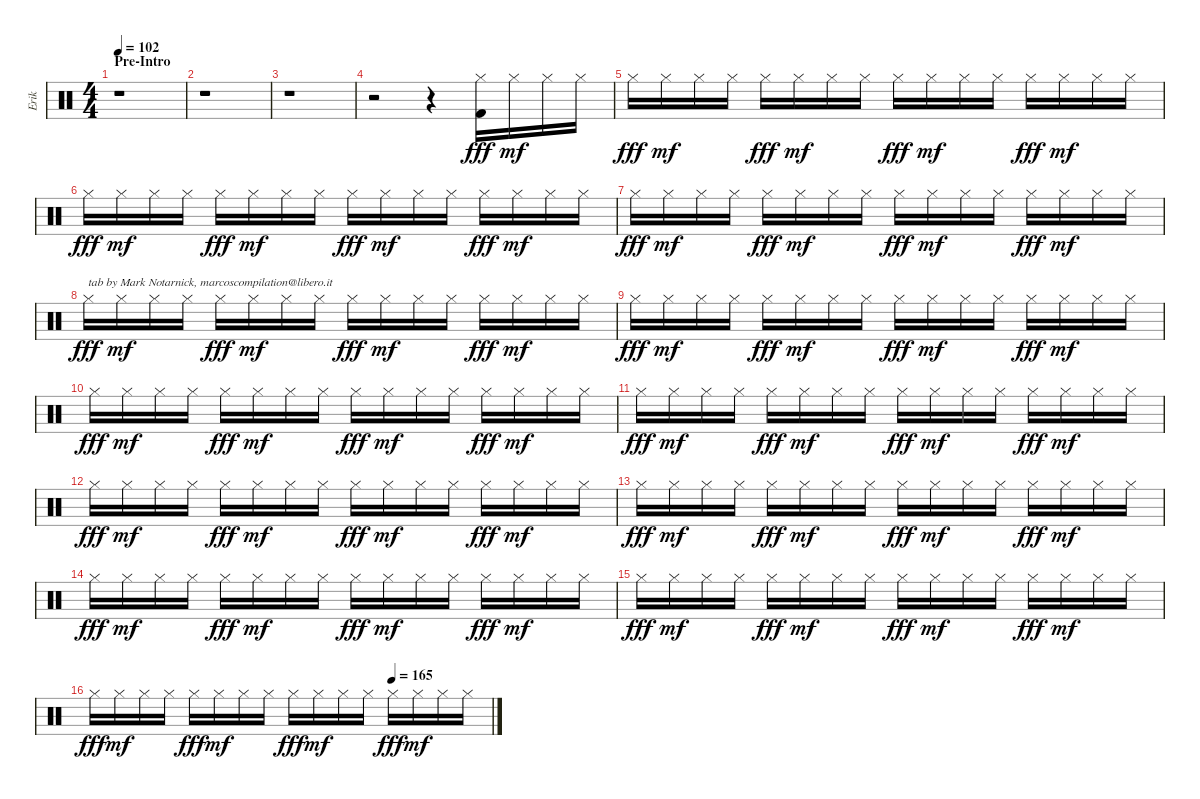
\track ("Erik" "Erik") {instrument percussion}
\staff {score}
\articulation defaults
\ts (4 4)
\section ("" "Pre-Intro")
\tempo 102
\tempo 182
\tempo 102
\clef neutral
\ks c
r.1{dy fff} |
r.1 |
r.1 |
r.2 r.4 ("Kick (hit) 2" "Hi-Hat (closed)").16 "Hi-Hat (closed)".16{dy mf} "Hi-Hat (closed)".16 "Hi-Hat (closed)".16 |
"Hi-Hat (closed)".16{dy fff} "Hi-Hat (closed)".16{dy mf} "Hi-Hat (closed)".16 "Hi-Hat (closed)".16 "Hi-Hat (closed)".16{dy fff} "Hi-Hat (closed)".16{dy mf} "Hi-Hat (closed)".16 "Hi-Hat (closed)".16 "Hi-Hat (closed)".16{dy fff} "Hi-Hat (closed)".16{dy mf} "Hi-Hat (closed)".16 "Hi-Hat (closed)".16 "Hi-Hat (closed)".16{dy fff} "Hi-Hat (closed)".16{dy mf} "Hi-Hat (closed)".16 "Hi-Hat (closed)".16 |
"Hi-Hat (closed)".16{dy fff} "Hi-Hat (closed)".16{dy mf} "Hi-Hat (closed)".16 "Hi-Hat (closed)".16 "Hi-Hat (closed)".16{dy fff} "Hi-Hat (closed)".16{dy mf} "Hi-Hat (closed)".16 "Hi-Hat (closed)".16 "Hi-Hat (closed)".16{dy fff} "Hi-Hat (closed)".16{dy mf} "Hi-Hat (closed)".16 "Hi-Hat (closed)".16 "Hi-Hat (closed)".16{dy fff} "Hi-Hat (closed)".16{dy mf} "Hi-Hat (closed)".16 "Hi-Hat (closed)".16 |
"Hi-Hat (closed)".16{dy fff} "Hi-Hat (closed)".16{dy mf} "Hi-Hat (closed)".16 "Hi-Hat (closed)".16 "Hi-Hat (closed)".16{dy fff} "Hi-Hat (closed)".16{dy mf} "Hi-Hat (closed)".16 "Hi-Hat (closed)".16 "Hi-Hat (closed)".16{dy fff} "Hi-Hat (closed)".16{dy mf} "Hi-Hat (closed)".16 "Hi-Hat (closed)".16 "Hi-Hat (closed)".16{dy fff} "Hi-Hat (closed)".16{dy mf} "Hi-Hat (closed)".16 "Hi-Hat (closed)".16 |
"Hi-Hat (closed)".16{txt "tab by Mark Notarnick, marcoscompilation@libero.it" dy fff} "Hi-Hat (closed)".16{dy mf} "Hi-Hat (closed)".16 "Hi-Hat (closed)".16 "Hi-Hat (closed)".16{dy fff} "Hi-Hat (closed)".16{dy mf} "Hi-Hat (closed)".16 "Hi-Hat (closed)".16 "Hi-Hat (closed)".16{dy fff} "Hi-Hat (closed)".16{dy mf} "Hi-Hat (closed)".16 "Hi-Hat (closed)".16 "Hi-Hat (closed)".16{dy fff} "Hi-Hat (closed)".16{dy mf} "Hi-Hat (closed)".16 "Hi-Hat (closed)".16 |
"Hi-Hat (closed)".16{dy fff} "Hi-Hat (closed)".16{dy mf} "Hi-Hat (closed)".16 "Hi-Hat (closed)".16 "Hi-Hat (closed)".16{dy fff} "Hi-Hat (closed)".16{dy mf} "Hi-Hat (closed)".16 "Hi-Hat (closed)".16 "Hi-Hat (closed)".16{dy fff} "Hi-Hat (closed)".16{dy mf} "Hi-Hat (closed)".16 "Hi-Hat (closed)".16 "Hi-Hat (closed)".16{dy fff} "Hi-Hat (closed)".16{dy mf} "Hi-Hat (closed)".16 "Hi-Hat (closed)".16 |
"Hi-Hat (closed)".16{dy fff} "Hi-Hat (closed)".16{dy mf} "Hi-Hat (closed)".16 "Hi-Hat (closed)".16 "Hi-Hat (closed)".16{dy fff} "Hi-Hat (closed)".16{dy mf} "Hi-Hat (closed)".16 "Hi-Hat (closed)".16 "Hi-Hat (closed)".16{dy fff} "Hi-Hat (closed)".16{dy mf} "Hi-Hat (closed)".16 "Hi-Hat (closed)".16 "Hi-Hat (closed)".16{dy fff} "Hi-Hat (closed)".16{dy mf} "Hi-Hat (closed)".16 "Hi-Hat (closed)".16 |
"Hi-Hat (closed)".16{dy fff} "Hi-Hat (closed)".16{dy mf} "Hi-Hat (closed)".16 "Hi-Hat (closed)".16 "Hi-Hat (closed)".16{dy fff} "Hi-Hat (closed)".16{dy mf} "Hi-Hat (closed)".16 "Hi-Hat (closed)".16 "Hi-Hat (closed)".16{dy fff} "Hi-Hat (closed)".16{dy mf} "Hi-Hat (closed)".16 "Hi-Hat (closed)".16 "Hi-Hat (closed)".16{dy fff} "Hi-Hat (closed)".16{dy mf} "Hi-Hat (closed)".16 "Hi-Hat (closed)".16 |
"Hi-Hat (closed)".16{dy fff} "Hi-Hat (closed)".16{dy mf} "Hi-Hat (closed)".16 "Hi-Hat (closed)".16 "Hi-Hat (closed)".16{dy fff} "Hi-Hat (closed)".16{dy mf} "Hi-Hat (closed)".16 "Hi-Hat (closed)".16 "Hi-Hat (closed)".16{dy fff} "Hi-Hat (closed)".16{dy mf} "Hi-Hat (closed)".16 "Hi-Hat (closed)".16 "Hi-Hat (closed)".16{dy fff} "Hi-Hat (closed)".16{dy mf} "Hi-Hat (closed)".16 "Hi-Hat (closed)".16 |
"Hi-Hat (closed)".16{dy fff} "Hi-Hat (closed)".16{dy mf} "Hi-Hat (closed)".16 "Hi-Hat (closed)".16 "Hi-Hat (closed)".16{dy fff} "Hi-Hat (closed)".16{dy mf} "Hi-Hat (closed)".16 "Hi-Hat (closed)".16 "Hi-Hat (closed)".16{dy fff} "Hi-Hat (closed)".16{dy mf} "Hi-Hat (closed)".16 "Hi-Hat (closed)".16 "Hi-Hat (closed)".16{dy fff} "Hi-Hat (closed)".16{dy mf} "Hi-Hat (closed)".16 "Hi-Hat (closed)".16 |
"Hi-Hat (closed)".16{dy fff} "Hi-Hat (closed)".16{dy mf} "Hi-Hat (closed)".16 "Hi-Hat (closed)".16 "Hi-Hat (closed)".16{dy fff} "Hi-Hat (closed)".16{dy mf} "Hi-Hat (closed)".16 "Hi-Hat (closed)".16 "Hi-Hat (closed)".16{dy fff} "Hi-Hat (closed)".16{dy mf} "Hi-Hat (closed)".16 "Hi-Hat (closed)".16 "Hi-Hat (closed)".16{dy fff} "Hi-Hat (closed)".16{dy mf} "Hi-Hat (closed)".16 "Hi-Hat (closed)".16 |
"Hi-Hat (closed)".16{dy fff} "Hi-Hat (closed)".16{dy mf} "Hi-Hat (closed)".16 "Hi-Hat (closed)".16 "Hi-Hat (closed)".16{dy fff} "Hi-Hat (closed)".16{dy mf} "Hi-Hat (closed)".16 "Hi-Hat (closed)".16 "Hi-Hat (closed)".16{dy fff} "Hi-Hat (closed)".16{dy mf} "Hi-Hat (closed)".16 "Hi-Hat (closed)".16 "Hi-Hat (closed)".16{dy fff} "Hi-Hat (closed)".16{dy mf} "Hi-Hat (closed)".16 "Hi-Hat (closed)".16 |
\tempo (165 0.75)
"Hi-Hat (closed)".16{dy fff} "Hi-Hat (closed)".16{dy mf} "Hi-Hat (closed)".16 "Hi-Hat (closed)".16 "Hi-Hat (closed)".16{dy fff} "Hi-Hat (closed)".16{dy mf} "Hi-Hat (closed)".16 "Hi-Hat (closed)".16 "Hi-Hat (closed)".16{dy fff} "Hi-Hat (closed)".16{dy mf} "Hi-Hat (closed)".16 "Hi-Hat (closed)".16 "Hi-Hat (closed)".16{dy fff} "Hi-Hat (closed)".16{dy mf} "Hi-Hat (closed)".16 "Hi-Hat (closed)".16
